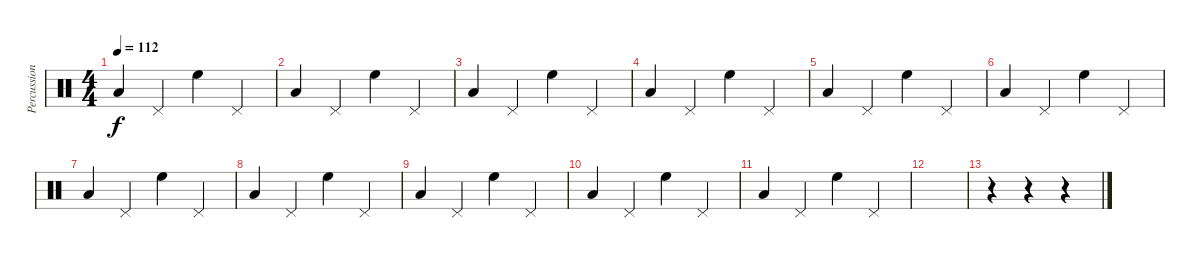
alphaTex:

\track ("Percussion" "Percussion") {instrument percussion}
\staff {score}
\articulation defaults
\ts (4 4)
\tempo 112
\clef neutral
\ks c "Low Floor Tom (hit)".4{dy f} "Pedal Hi-Hat (hit)".4 "High Floor Tom (hit)".4 "Pedal Hi-Hat (hit)".4
|
"Low Floor Tom (hit)".4 "Pedal Hi-Hat (hit)".4 "High Floor Tom (hit)".4 "Pedal Hi-Hat (hit)".4 |
"Low Floor Tom (hit)".4 "Pedal Hi-Hat (hit)".4 "High Floor Tom (hit)".4 "Pedal Hi-Hat (hit)".4 |
"Low Floor Tom (hit)".4 "Pedal Hi-Hat (hit)".4 "High Floor Tom (hit)".4 "Pedal Hi-Hat (hit)".4 |
"Low Floor Tom (hit)".4 "Pedal Hi-Hat (hit)".4 "High Floor Tom (hit)".4 "Pedal Hi-Hat (hit)".4 |
"Low Floor Tom (hit)".4 "Pedal Hi-Hat (hit)".4 "High Floor Tom (hit)".4 "Pedal Hi-Hat (hit)".4 |
"Low Floor Tom (hit)".4 "Pedal Hi-Hat (hit)".4 "High Floor Tom (hit)".4 "Pedal Hi-Hat (hit)".4 |
"Low Floor Tom (hit)".4 "Pedal Hi-Hat (hit)".4 "High Floor Tom (hit)".4 "Pedal Hi-Hat (hit)".4 |
"Low Floor Tom (hit)".4 "Pedal Hi-Hat (hit)".4 "High Floor Tom (hit)".4 "Pedal Hi-Hat (hit)".4 |
"Low Floor Tom (hit)".4 "Pedal Hi-Hat (hit)".4 "High Floor Tom (hit)".4 "Pedal Hi-Hat (hit)".4 |
"Low Floor Tom (hit)".4 "Pedal Hi-Hat (hit)".4 "High Floor Tom (hit)".4 "Pedal Hi-Hat (hit)".4 |
|
r.4 r.4 r.4
